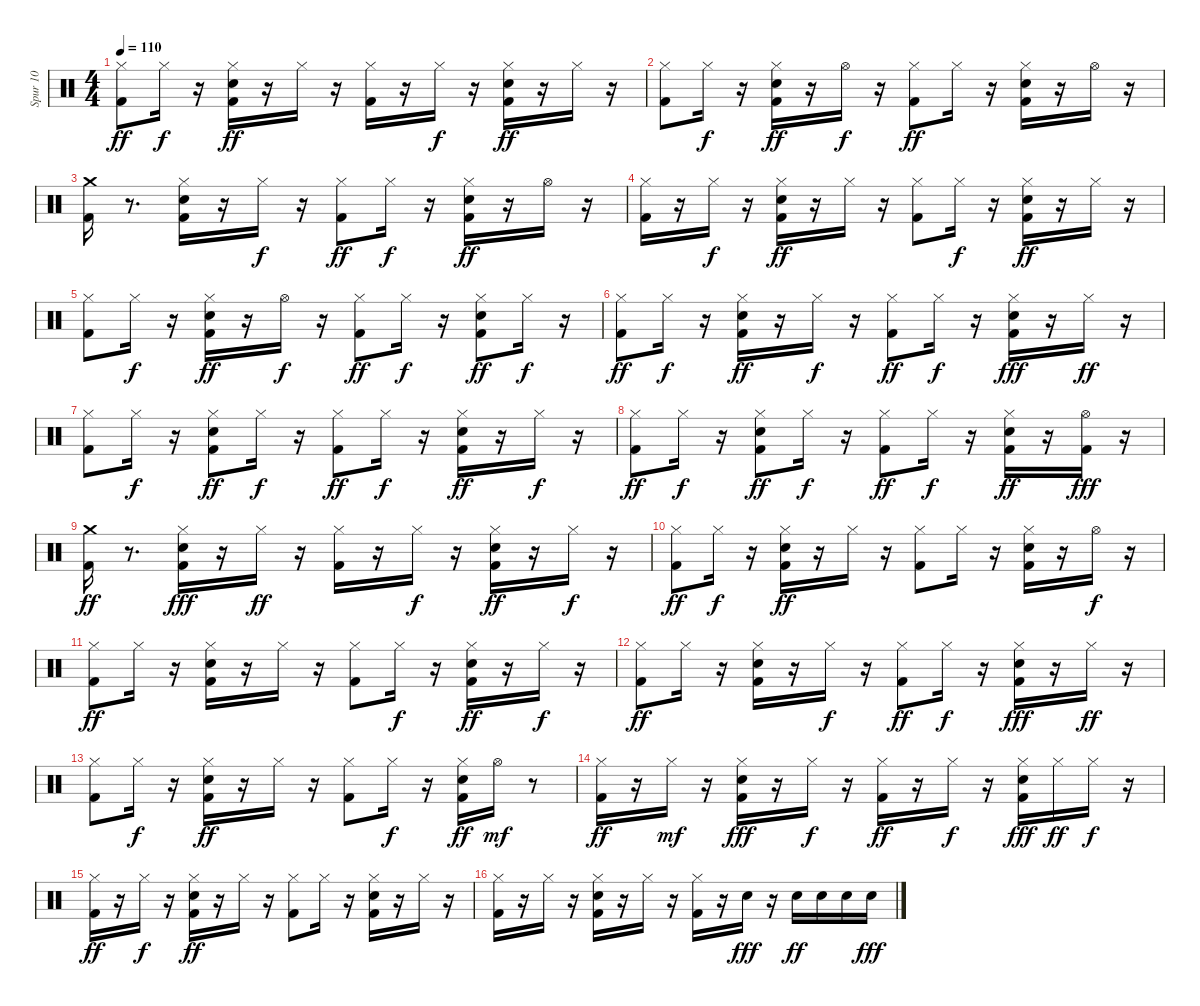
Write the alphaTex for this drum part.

\track ("Spur 10" "Spur 10") {instrument percussion}
\staff {score}
\articulation defaults
\ts (4 4)
\tempo 110
\clef neutral
\ks c
("Hi-Hat (closed)" "Kick (hit) 2").8{dy ff} "Hi-Hat (closed)".16{dy f} r.16 ("Snare (hit) 2" "Kick (hit) 2" "Hi-Hat (closed)").16{dy ff} r.16 "Hi-Hat (closed)".16 r.16 ("Hi-Hat (closed)" "Kick (hit) 2").16 r.16 "Hi-Hat (closed)".16{dy f} r.16 ("Snare (hit) 2" "Kick (hit) 2" "Hi-Hat (closed)").16{dy ff} r.16 "Hi-Hat (closed)".16 r.16 |
("Kick (hit) 2" "Hi-Hat (closed)").8 "Hi-Hat (closed)".16{dy f} r.16 ("Kick (hit) 2" "Snare (hit) 2" "Hi-Hat (closed)").16{dy ff} r.16 "Hi-Hat (open)".16{dy f} r.16 ("Kick (hit) 2" "Hi-Hat (closed)").8{dy ff} "Hi-Hat (closed)".16 r.16 ("Snare (hit) 2" "Kick (hit) 2" "Hi-Hat (closed)").16 r.16 "Hi-Hat (open)".16 r.16 |
("Kick (hit) 2" "Crash medium (hit)").16 r.8{d} ("Hi-Hat (closed)" "Kick (hit) 2" "Snare (hit) 2").16 r.16 "Hi-Hat (closed)".16{dy f} r.16 ("Kick (hit) 2" "Hi-Hat (closed)").8{dy ff} "Hi-Hat (closed)".16{dy f} r.16 ("Snare (hit) 2" "Kick (hit) 2" "Hi-Hat (closed)").16{dy ff} r.16 "Hi-Hat (open)".16 r.16 |
("Kick (hit) 2" "Hi-Hat (closed)").16 r.16 "Hi-Hat (closed)".16{dy f} r.16 ("Snare (hit) 2" "Kick (hit) 2" "Hi-Hat (closed)").16{dy ff} r.16 "Hi-Hat (closed)".16 r.16 ("Kick (hit) 2" "Hi-Hat (closed)").8 "Hi-Hat (closed)".16{dy f} r.16 ("Hi-Hat (closed)" "Snare (hit) 2" "Kick (hit) 2").16{dy ff} r.16 "Hi-Hat (closed)".16 r.16 |
("Hi-Hat (closed)" "Kick (hit) 2").8 "Hi-Hat (closed)".16{dy f} r.16 ("Kick (hit) 2" "Snare (hit) 2" "Hi-Hat (closed)").16{dy ff} r.16 "Hi-Hat (open)".16{dy f} r.16 ("Hi-Hat (closed)" "Kick (hit) 2").8{dy ff} "Hi-Hat (closed)".16{dy f} r.16 ("Snare (hit) 2" "Kick (hit) 2" "Hi-Hat (closed)").8{dy ff} "Hi-Hat (closed)".16{dy f} r.16 |
("Kick (hit) 2" "Hi-Hat (closed)").8{dy ff} "Hi-Hat (closed)".16{dy f} r.16 ("Hi-Hat (closed)" "Snare (hit) 2" "Kick (hit) 2").16{dy ff} r.16 "Hi-Hat (closed)".16{dy f} r.16 ("Hi-Hat (closed)" "Kick (hit) 2").8{dy ff} "Hi-Hat (closed)".16{dy f} r.16 ("Hi-Hat (closed)" "Kick (hit) 2" "Snare (hit) 2").16{dy fff} r.16 "Hi-Hat (closed)".16{dy ff} r.16 |
("Hi-Hat (closed)" "Kick (hit) 2").8 "Hi-Hat (closed)".16{dy f} r.16 ("Kick (hit) 2" "Snare (hit) 2" "Hi-Hat (closed)").8{dy ff} "Hi-Hat (closed)".16{dy f} r.16 ("Kick (hit) 2" "Hi-Hat (closed)").8{dy ff} "Hi-Hat (closed)".16{dy f} r.16 ("Snare (hit) 2" "Kick (hit) 2" "Hi-Hat (closed)").16{dy ff} r.16 "Hi-Hat (closed)".16{dy f} r.16 |
("Kick (hit) 2" "Hi-Hat (closed)").8{dy ff} "Hi-Hat (closed)".16{dy f} r.16 ("Snare (hit) 2" "Kick (hit) 2" "Hi-Hat (closed)").8{dy ff} "Hi-Hat (closed)".16{dy f} r.16 ("Hi-Hat (closed)" "Kick (hit) 2").8{dy ff} "Hi-Hat (closed)".16{dy f} r.16 ("Kick (hit) 2" "Snare (hit) 2" "Hi-Hat (closed)").16{dy ff} r.16 ("Hi-Hat (open)" "Kick (hit) 2").16{dy fff} r.16 |
("Kick (hit) 2" "Crash medium (hit)").16{dy ff} r.8{d} ("Kick (hit) 2" "Snare (hit) 2" "Hi-Hat (closed)").16{dy fff} r.16 "Hi-Hat (closed)".16{dy ff} r.16 ("Kick (hit) 2" "Hi-Hat (closed)").16 r.16 "Hi-Hat (closed)".16{dy f} r.16 ("Snare (hit) 2" "Kick (hit) 2" "Hi-Hat (closed)").16{dy ff} r.16 "Hi-Hat (closed)".16{dy f} r.16 |
("Kick (hit) 2" "Hi-Hat (closed)").8{dy ff} "Hi-Hat (closed)".16{dy f} r.16 ("Snare (hit) 2" "Kick (hit) 2" "Hi-Hat (closed)").16{dy ff} r.16 "Hi-Hat (closed)".16 r.16 ("Kick (hit) 2" "Hi-Hat (closed)").8 "Hi-Hat (closed)".16 r.16 ("Snare (hit) 2" "Kick (hit) 2" "Hi-Hat (closed)").16 r.16 "Hi-Hat (open)".16{dy f} r.16 |
("Kick (hit) 2" "Hi-Hat (closed)").8{dy ff} "Hi-Hat (closed)".16 r.16 ("Kick (hit) 2" "Snare (hit) 2" "Hi-Hat (closed)").16 r.16 "Hi-Hat (closed)".16 r.16 ("Hi-Hat (closed)" "Kick (hit) 2").8 "Hi-Hat (closed)".16{dy f} r.16 ("Snare (hit) 2" "Kick (hit) 2" "Hi-Hat (closed)").16{dy ff} r.16 "Hi-Hat (closed)".16{dy f} r.16 |
("Hi-Hat (closed)" "Kick (hit) 2").8{dy ff} "Hi-Hat (closed)".16 r.16 ("Snare (hit) 2" "Kick (hit) 2" "Hi-Hat (closed)").16 r.16 "Hi-Hat (closed)".16{dy f} r.16 ("Kick (hit) 2" "Hi-Hat (closed)").8{dy ff} "Hi-Hat (closed)".16{dy f} r.16 ("Kick (hit) 2" "Snare (hit) 2" "Hi-Hat (closed)").16{dy fff} r.16 "Hi-Hat (closed)".16{dy ff} r.16 |
("Kick (hit) 2" "Hi-Hat (closed)").8 "Hi-Hat (closed)".16{dy f} r.16 ("Kick (hit) 2" "Snare (hit) 2" "Hi-Hat (closed)").16{dy ff} r.16 "Hi-Hat (closed)".16 r.16 ("Kick (hit) 2" "Hi-Hat (closed)").8 "Hi-Hat (closed)".16{dy f} r.16 ("Snare (hit) 2" "Kick (hit) 2" "Hi-Hat (closed)").16{dy ff} "Hi-Hat (open)".16{dy mf} r.8 |
("Kick (hit) 2" "Hi-Hat (closed)").16{dy ff} r.16 "Hi-Hat (closed)".16{dy mf} r.16 ("Kick (hit) 2" "Hi-Hat (closed)" "Snare (hit) 2").16{dy fff} r.16 "Hi-Hat (closed)".16{dy f} r.16 ("Kick (hit) 2" "Hi-Hat (closed)").16{dy ff} r.16 "Hi-Hat (closed)".16{dy f} r.16 ("Hi-Hat (closed)" "Snare (hit) 2" "Kick (hit) 2").16{dy fff} "Hi-Hat (closed)".16{dy ff} "Hi-Hat (closed)".16{dy f} r.16 |
("Kick (hit) 2" "Hi-Hat (closed)").16{dy ff} r.16 "Hi-Hat (closed)".16{dy f} r.16 ("Kick (hit) 2" "Snare (hit) 2" "Hi-Hat (closed)").16{dy ff} r.16 "Hi-Hat (closed)".16 r.16 ("Kick (hit) 2" "Hi-Hat (closed)").8 "Hi-Hat (closed)".16 r.16 ("Snare (hit) 2" "Kick (hit) 2" "Hi-Hat (closed)").16 r.16 "Hi-Hat (closed)".16 r.16 |
("Kick (hit) 2" "Hi-Hat (closed)").16 r.16 "Hi-Hat (closed)".16 r.16 ("Snare (hit) 2" "Hi-Hat (closed)" "Kick (hit) 2").16 r.16 "Hi-Hat (closed)".16 r.16 ("Kick (hit) 2" "Hi-Hat (closed)").16 r.16 "Snare (hit) 2".16{dy fff} r.16 "Snare (hit) 2".16{dy ff} "Snare (hit) 2".16 "Snare (hit) 2".16 "Snare (hit) 2".16{dy fff}
